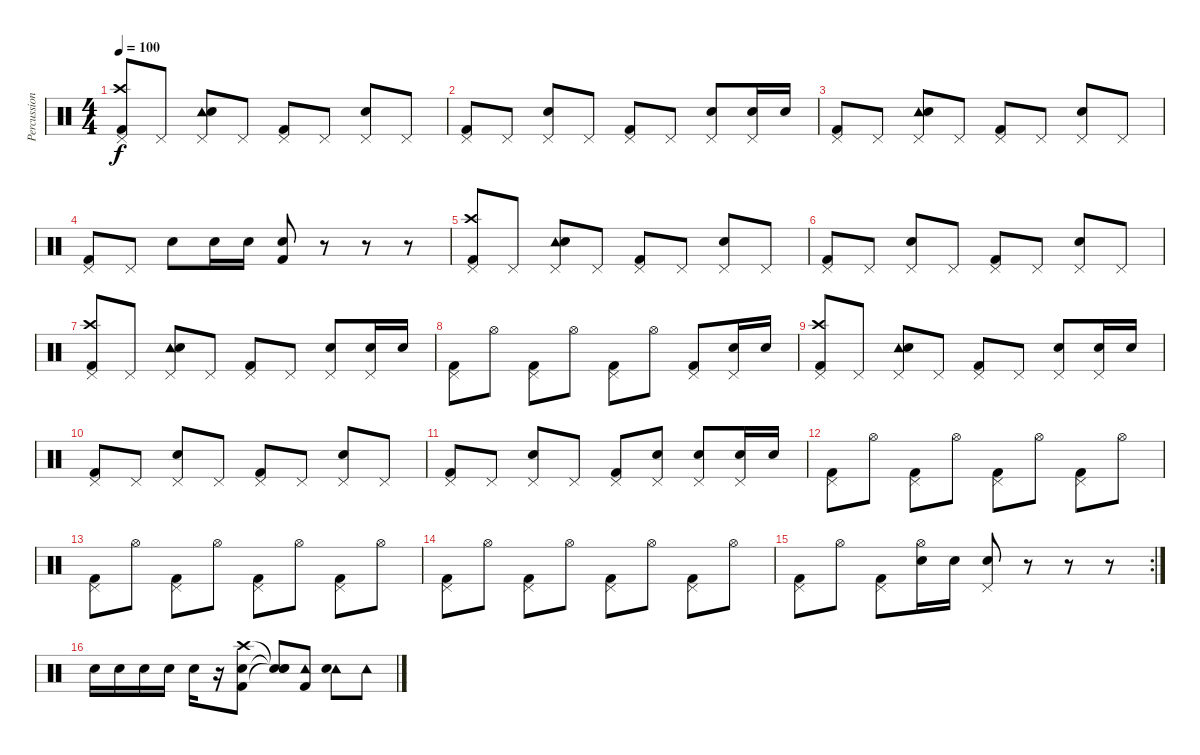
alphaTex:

\track ("Percussion" "Percussion") {instrument percussion}
\staff {score}
\articulation defaults
\ts (4 4)
\tempo 100
\clef neutral
\ks c
("Pedal Hi-Hat (hit)" "Crash high (hit)" "Kick (hit) 2").8{dy f} "Pedal Hi-Hat (hit)".8 ("Pedal Hi-Hat (hit)" "Tambourine (hit)" "Snare (hit) 2").8 "Pedal Hi-Hat (hit)".8 ("Pedal Hi-Hat (hit)" "Kick (hit) 2").8 "Pedal Hi-Hat (hit)".8 ("Pedal Hi-Hat (hit)" "Snare (hit) 2").8 "Pedal Hi-Hat (hit)".8 |
("Pedal Hi-Hat (hit)" "Kick (hit) 2").8 "Pedal Hi-Hat (hit)".8 ("Pedal Hi-Hat (hit)" "Snare (hit) 2").8 "Pedal Hi-Hat (hit)".8 ("Pedal Hi-Hat (hit)" "Kick (hit) 2").8 "Pedal Hi-Hat (hit)".8 ("Pedal Hi-Hat (hit)" "Snare (hit) 2").8 ("Pedal Hi-Hat (hit)" "Snare (hit) 2").16 "Snare (hit) 2".16 |
("Pedal Hi-Hat (hit)" "Kick (hit) 2").8 "Pedal Hi-Hat (hit)".8 ("Pedal Hi-Hat (hit)" "Tambourine (hit)" "Snare (hit) 2").8 "Pedal Hi-Hat (hit)".8 ("Pedal Hi-Hat (hit)" "Kick (hit) 2").8 "Pedal Hi-Hat (hit)".8 ("Pedal Hi-Hat (hit)" "Snare (hit) 2").8 "Pedal Hi-Hat (hit)".8 |
("Pedal Hi-Hat (hit)" "Kick (hit) 2").8 "Pedal Hi-Hat (hit)".8 "Snare (hit) 2".8 "Snare (hit) 2".16 "Snare (hit) 2".16 ("Snare (hit) 2" "Kick (hit) 2").8 r.8 r.8 r.8 |
("Pedal Hi-Hat (hit)" "Crash high (hit)" "Kick (hit) 2").8 "Pedal Hi-Hat (hit)".8 ("Pedal Hi-Hat (hit)" "Tambourine (hit)" "Snare (hit) 2").8 "Pedal Hi-Hat (hit)".8 ("Pedal Hi-Hat (hit)" "Kick (hit) 2").8 "Pedal Hi-Hat (hit)".8 ("Pedal Hi-Hat (hit)" "Snare (hit) 2").8 "Pedal Hi-Hat (hit)".8 |
("Pedal Hi-Hat (hit)" "Kick (hit) 2").8 "Pedal Hi-Hat (hit)".8 ("Pedal Hi-Hat (hit)" "Snare (hit) 2").8 "Pedal Hi-Hat (hit)".8 ("Pedal Hi-Hat (hit)" "Kick (hit) 2").8 "Pedal Hi-Hat (hit)".8 ("Pedal Hi-Hat (hit)" "Snare (hit) 2").8 "Pedal Hi-Hat (hit)".8 |
("Pedal Hi-Hat (hit)" "Crash high (hit)" "Kick (hit) 2").8 "Pedal Hi-Hat (hit)".8 ("Pedal Hi-Hat (hit)" "Tambourine (hit)" "Snare (hit) 2").8 "Pedal Hi-Hat (hit)".8 ("Pedal Hi-Hat (hit)" "Kick (hit) 2").8 "Pedal Hi-Hat (hit)".8 ("Pedal Hi-Hat (hit)" "Snare (hit) 2").8 ("Pedal Hi-Hat (hit)" "Snare (hit) 2").16 "Snare (hit) 2".16 |
("Pedal Hi-Hat (hit)" "Kick (hit) 2").8 "Hi-Hat (open)".8 ("Pedal Hi-Hat (hit)" "Kick (hit) 2").8 "Hi-Hat (open)".8 ("Pedal Hi-Hat (hit)" "Kick (hit) 2").8 "Hi-Hat (open)".8 ("Pedal Hi-Hat (hit)" "Kick (hit) 2").8 ("Pedal Hi-Hat (hit)" "Snare (hit) 2").16 "Snare (hit) 2".16 |
("Pedal Hi-Hat (hit)" "Crash high (hit)" "Kick (hit) 2").8 "Pedal Hi-Hat (hit)".8 ("Pedal Hi-Hat (hit)" "Tambourine (hit)" "Snare (hit) 2").8 "Pedal Hi-Hat (hit)".8 ("Pedal Hi-Hat (hit)" "Kick (hit) 2").8 "Pedal Hi-Hat (hit)".8 ("Pedal Hi-Hat (hit)" "Snare (hit) 2").8 ("Pedal Hi-Hat (hit)" "Snare (hit) 2").16 "Snare (hit) 2".16 |
("Pedal Hi-Hat (hit)" "Kick (hit) 2").8 "Pedal Hi-Hat (hit)".8 ("Pedal Hi-Hat (hit)" "Snare (hit) 2").8 "Pedal Hi-Hat (hit)".8 ("Pedal Hi-Hat (hit)" "Kick (hit) 2").8 "Pedal Hi-Hat (hit)".8 ("Pedal Hi-Hat (hit)" "Snare (hit) 2").8 "Pedal Hi-Hat (hit)".8 |
("Pedal Hi-Hat (hit)" "Kick (hit) 2").8 "Pedal Hi-Hat (hit)".8 ("Pedal Hi-Hat (hit)" "Snare (hit) 2").8 "Pedal Hi-Hat (hit)".8 ("Pedal Hi-Hat (hit)" "Kick (hit) 2").8 ("Pedal Hi-Hat (hit)" "Snare (hit) 2").8 ("Pedal Hi-Hat (hit)" "Snare (hit) 2").8 ("Pedal Hi-Hat (hit)" "Snare (hit) 2").16 "Snare (hit) 2".16 |
("Pedal Hi-Hat (hit)" "Kick (hit) 2").8 "Hi-Hat (open)".8 ("Pedal Hi-Hat (hit)" "Kick (hit) 2").8 "Hi-Hat (open)".8 ("Pedal Hi-Hat (hit)" "Kick (hit) 2").8 "Hi-Hat (open)".8 ("Pedal Hi-Hat (hit)" "Kick (hit) 2").8 "Hi-Hat (open)".8 |
("Pedal Hi-Hat (hit)" "Kick (hit) 2").8 "Hi-Hat (open)".8 ("Pedal Hi-Hat (hit)" "Kick (hit) 2").8 "Hi-Hat (open)".8 ("Pedal Hi-Hat (hit)" "Kick (hit) 2").8 "Hi-Hat (open)".8 ("Pedal Hi-Hat (hit)" "Kick (hit) 2").8 "Hi-Hat (open)".8 |
("Pedal Hi-Hat (hit)" "Kick (hit) 2").8 "Hi-Hat (open)".8 ("Pedal Hi-Hat (hit)" "Kick (hit) 2").8 "Hi-Hat (open)".8 ("Pedal Hi-Hat (hit)" "Kick (hit) 2").8 "Hi-Hat (open)".8 ("Pedal Hi-Hat (hit)" "Kick (hit) 2").8 "Hi-Hat (open)".8 |
\rc 2
("Pedal Hi-Hat (hit)" "Kick (hit) 2").8 "Hi-Hat (open)".8 ("Pedal Hi-Hat (hit)" "Kick (hit) 2").8 ("Hi-Hat (open)" "Snare (hit) 2").16 "Snare (hit) 2".16 ("Pedal Hi-Hat (hit)" "Snare (hit) 2").8 r.8 r.8 r.8 |
"Snare (hit) 2".16 "Snare (hit) 2".16 "Snare (hit) 2".16 "Snare (hit) 2".16 "Snare (hit) 2".16 r.16 ("Crash high (hit)" "Snare (hit) 2" "Kick (hit) 2").8 ("Snare (hit)"{t} "Snare (hit)"{t} "Snare (hit)"{t}).8 ("Tambourine (hit)" "Kick (hit) 2").8 ("Tambourine (hit)" "Snare (hit) 2").8 "Tambourine (hit)".8
